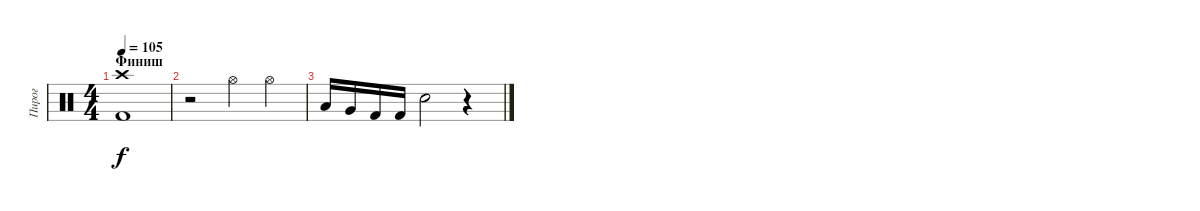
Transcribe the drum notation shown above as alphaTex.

\track ("Пирог" "Пирог") {instrument percussion}
\staff {score}
\articulation defaults
\ts (4 4)
\section ("" "Финиш")
\tempo 105
\clef neutral
\ks c
("Crash high (hit)" "Kick (hit) 2").1{dy f} |
r.2 "Hi-Hat (open)".4 "Hi-Hat (open)".4 |
"Low Tom (hit)".16 "Very Low Tom (hit)".16 "Kick (hit) 2".16 "Kick (hit) 2".16 "Electric Snare (hit)".2 r.4
